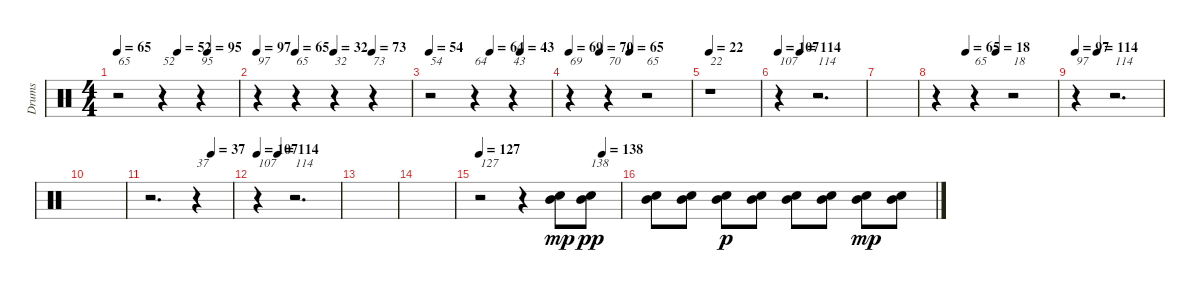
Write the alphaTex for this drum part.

\track ("Drums" "Drums") {instrument percussion}
\staff {score}
\articulation defaults
\ts (4 4)
\tempo 65
\tempo (52 0.5)
\tempo (95 0.75)
\clef neutral
\ks c
r.2{txt "65" dy mp} r.4{txt "52"} r.4{txt "95"} |
\tempo 97
\tempo (65 0.25)
\tempo (32 0.5)
\tempo (73 0.75)
r.4{txt "97"} r.4{txt "65"} r.4{txt "32"} r.4{txt "73"} |
\tempo 54
\tempo (64 0.5)
\tempo (43 0.75)
r.2{txt "54"} r.4{txt "64"} r.4{txt "43"} |
\tempo 69
\tempo (70 0.25)
\tempo (65 0.5)
r.4{txt "69"} r.4{txt "70"} r.2{txt "65"} |
\tempo 22
r.1{txt "22"} |
\tempo 107
\tempo (114 0.25)
r.4{txt "107"} r.2{d txt "114"} |
|
\tempo (65 0.25)
\tempo (18 0.5)
r.4 r.4{txt "65"} r.2{txt "18"} |
\tempo 97
\tempo (114 0.25)
r.4{txt "97"} r.2{d txt "114"} |
|
\tempo (37 0.75)
r.2{d} r.4{txt "37"} |
\tempo 107
\tempo (114 0.25)
r.4{txt "107"} r.2{d txt "114"} |
|
|
\tempo 127
\tempo (138 0.875)
r.2{txt "127"} r.4 ("Electric Snare (hit)" "Mid Tom (hit)").8 ("Electric Snare (hit)" "Mid Tom (hit)").8{txt "138" dy pp} |
("Electric Snare (hit)" "Mid Tom (hit)").8 ("Electric Snare (hit)" "Mid Tom (hit)").8 ("Electric Snare (hit)" "Mid Tom (hit)").8{dy p} ("Electric Snare (hit)" "Mid Tom (hit)").8 ("Electric Snare (hit)" "Mid Tom (hit)").8 ("Electric Snare (hit)" "Mid Tom (hit)").8 ("Electric Snare (hit)" "Mid Tom (hit)").8{dy mp} ("Electric Snare (hit)" "Mid Tom (hit)").8
